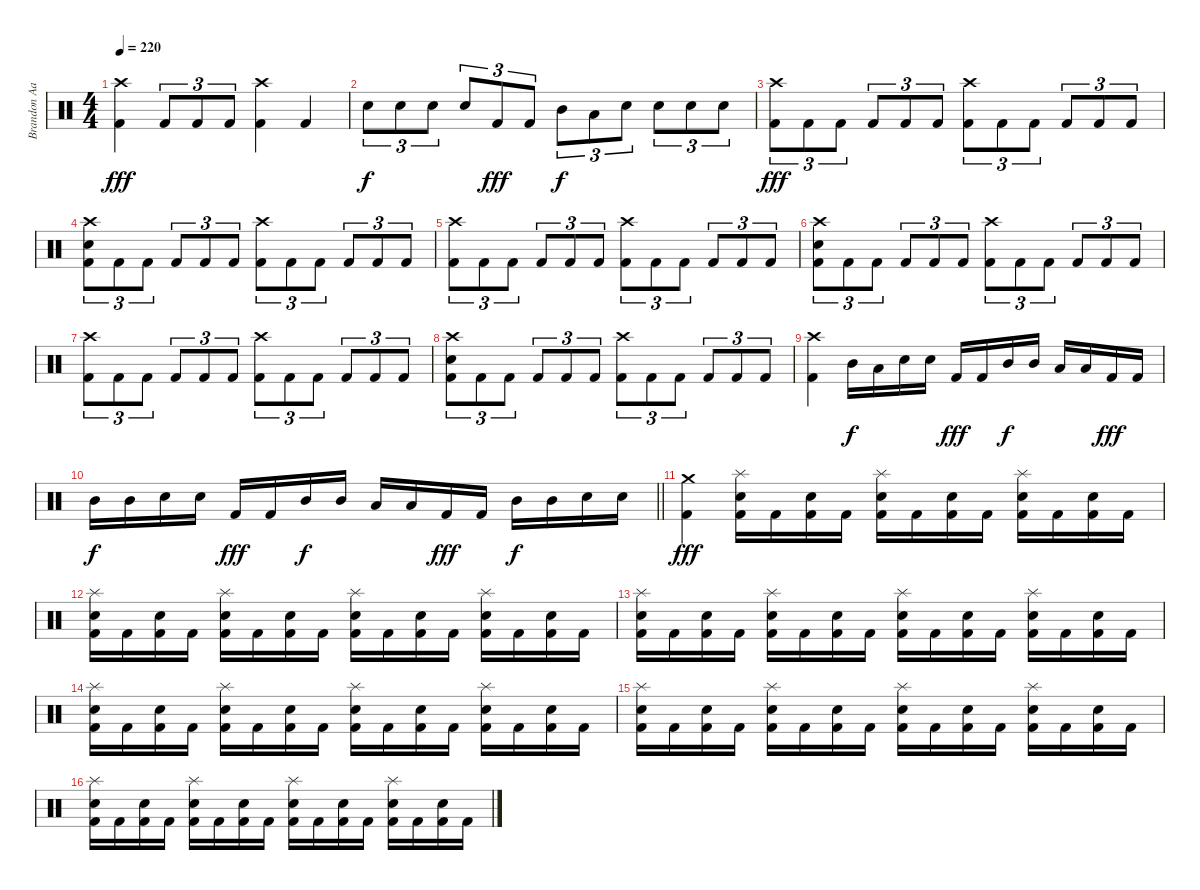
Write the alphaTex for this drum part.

\track ("Brandon Aaron Burkhalter" "Brandon Aa") {instrument percussion}
\staff {score}
\articulation defaults
\ts (4 4)
\tempo 220
\clef neutral
\ks c
("Crash high (hit)" "Kick (hit) 2").4{dy fff} "Kick (hit) 2".8{tu (3 2)} "Kick (hit) 2".8{tu (3 2)} "Kick (hit) 2".8{tu (3 2)} ("Crash high (hit)" "Kick (hit) 2").4 "Kick (hit) 2".4 |
"Snare (hit) 2".8{tu (3 2) dy f} "Snare (hit) 2".8{tu (3 2)} "Snare (hit) 2".8{tu (3 2)} "Snare (hit) 2".8{tu (3 2)} "Kick (hit) 2".8{tu (3 2) dy fff} "Kick (hit) 2".8{tu (3 2)} "Mid Tom (hit)".8{tu (3 2) dy f} "Low Tom (hit)".8{tu (3 2)} "Snare (hit) 2".8{tu (3 2)} "Snare (hit) 2".8{tu (3 2)} "Snare (hit) 2".8{tu (3 2)} "Snare (hit) 2".8{tu (3 2)} |
("Crash high (hit)" "Kick (hit) 2").8{tu (3 2) dy fff} "Kick (hit) 2".8{tu (3 2)} "Kick (hit) 2".8{tu (3 2)} "Kick (hit) 2".8{tu (3 2)} "Kick (hit) 2".8{tu (3 2)} "Kick (hit) 2".8{tu (3 2)} ("Crash high (hit)" "Kick (hit) 2").8{tu (3 2)} "Kick (hit) 2".8{tu (3 2)} "Kick (hit) 2".8{tu (3 2)} "Kick (hit) 2".8{tu (3 2)} "Kick (hit) 2".8{tu (3 2)} "Kick (hit) 2".8{tu (3 2)} |
("Crash high (hit)" "Snare (hit) 2" "Kick (hit) 2").8{tu (3 2)} "Kick (hit) 2".8{tu (3 2)} "Kick (hit) 2".8{tu (3 2)} "Kick (hit) 2".8{tu (3 2)} "Kick (hit) 2".8{tu (3 2)} "Kick (hit) 2".8{tu (3 2)} ("Crash high (hit)" "Kick (hit) 2").8{tu (3 2)} "Kick (hit) 2".8{tu (3 2)} "Kick (hit) 2".8{tu (3 2)} "Kick (hit) 2".8{tu (3 2)} "Kick (hit) 2".8{tu (3 2)} "Kick (hit) 2".8{tu (3 2)} |
("Crash high (hit)" "Kick (hit) 2").8{tu (3 2)} "Kick (hit) 2".8{tu (3 2)} "Kick (hit) 2".8{tu (3 2)} "Kick (hit) 2".8{tu (3 2)} "Kick (hit) 2".8{tu (3 2)} "Kick (hit) 2".8{tu (3 2)} ("Crash high (hit)" "Kick (hit) 2").8{tu (3 2)} "Kick (hit) 2".8{tu (3 2)} "Kick (hit) 2".8{tu (3 2)} "Kick (hit) 2".8{tu (3 2)} "Kick (hit) 2".8{tu (3 2)} "Kick (hit) 2".8{tu (3 2)} |
("Crash high (hit)" "Snare (hit) 2" "Kick (hit) 2").8{tu (3 2)} "Kick (hit) 2".8{tu (3 2)} "Kick (hit) 2".8{tu (3 2)} "Kick (hit) 2".8{tu (3 2)} "Kick (hit) 2".8{tu (3 2)} "Kick (hit) 2".8{tu (3 2)} ("Crash high (hit)" "Kick (hit) 2").8{tu (3 2)} "Kick (hit) 2".8{tu (3 2)} "Kick (hit) 2".8{tu (3 2)} "Kick (hit) 2".8{tu (3 2)} "Kick (hit) 2".8{tu (3 2)} "Kick (hit) 2".8{tu (3 2)} |
("Crash high (hit)" "Kick (hit) 2").8{tu (3 2)} "Kick (hit) 2".8{tu (3 2)} "Kick (hit) 2".8{tu (3 2)} "Kick (hit) 2".8{tu (3 2)} "Kick (hit) 2".8{tu (3 2)} "Kick (hit) 2".8{tu (3 2)} ("Crash high (hit)" "Kick (hit) 2").8{tu (3 2)} "Kick (hit) 2".8{tu (3 2)} "Kick (hit) 2".8{tu (3 2)} "Kick (hit) 2".8{tu (3 2)} "Kick (hit) 2".8{tu (3 2)} "Kick (hit) 2".8{tu (3 2)} |
("Crash high (hit)" "Snare (hit) 2" "Kick (hit) 2").8{tu (3 2)} "Kick (hit) 2".8{tu (3 2)} "Kick (hit) 2".8{tu (3 2)} "Kick (hit) 2".8{tu (3 2)} "Kick (hit) 2".8{tu (3 2)} "Kick (hit) 2".8{tu (3 2)} ("Crash high (hit)" "Kick (hit) 2").8{tu (3 2)} "Kick (hit) 2".8{tu (3 2)} "Kick (hit) 2".8{tu (3 2)} "Kick (hit) 2".8{tu (3 2)} "Kick (hit) 2".8{tu (3 2)} "Kick (hit) 2".8{tu (3 2)} |
("Crash high (hit)" "Kick (hit) 2").4 "Mid Tom (hit)".16{dy f} "Low Tom (hit)".16 "Snare (hit) 2".16 "Snare (hit) 2".16 "Kick (hit) 2".16{dy fff} "Kick (hit) 2".16 "Mid Tom (hit)".16{dy f} "Mid Tom (hit)".16 "Low Tom (hit)".16 "Low Tom (hit)".16 "Kick (hit) 2".16{dy fff} "Kick (hit) 2".16 |
\barLineRight lightlight "Mid Tom (hit)".16{dy f} "Mid Tom (hit)".16 "Snare (hit) 2".16 "Snare (hit) 2".16 "Kick (hit) 2".16{dy fff} "Kick (hit) 2".16 "Mid Tom (hit)".16{dy f} "Mid Tom (hit)".16 "Low Tom (hit)".16 "Low Tom (hit)".16 "Kick (hit) 2".16{dy fff} "Kick (hit) 2".16 "Mid Tom (hit)".16{dy f} "Mid Tom (hit)".16 "Snare (hit) 2".16 "Snare (hit) 2".16
|
("Crash medium (hit)" "Kick (hit) 2").4{dy fff} ("Splash (hit)" "Snare (hit) 2" "Kick (hit) 2").16 "Kick (hit) 2".16 ("Snare (hit) 2" "Kick (hit) 2").16 "Kick (hit) 2".16 ("Splash (hit)" "Snare (hit) 2" "Kick (hit) 2").16 "Kick (hit) 2".16 ("Snare (hit) 2" "Kick (hit) 2").16 "Kick (hit) 2".16 ("Splash (hit)" "Snare (hit) 2" "Kick (hit) 2").16 "Kick (hit) 2".16 ("Snare (hit) 2" "Kick (hit) 2").16 "Kick (hit) 2".16 |
("Splash (hit)" "Snare (hit) 2" "Kick (hit) 2").16 "Kick (hit) 2".16 ("Snare (hit) 2" "Kick (hit) 2").16 "Kick (hit) 2".16 ("Splash (hit)" "Snare (hit) 2" "Kick (hit) 2").16 "Kick (hit) 2".16 ("Snare (hit) 2" "Kick (hit) 2").16 "Kick (hit) 2".16 ("Splash (hit)" "Snare (hit) 2" "Kick (hit) 2").16 "Kick (hit) 2".16 ("Snare (hit) 2" "Kick (hit) 2").16 "Kick (hit) 2".16 ("Splash (hit)" "Snare (hit) 2" "Kick (hit) 2").16 "Kick (hit) 2".16 ("Snare (hit) 2" "Kick (hit) 2").16 "Kick (hit) 2".16 |
("Splash (hit)" "Snare (hit) 2" "Kick (hit) 2").16 "Kick (hit) 2".16 ("Snare (hit) 2" "Kick (hit) 2").16 "Kick (hit) 2".16 ("Splash (hit)" "Snare (hit) 2" "Kick (hit) 2").16 "Kick (hit) 2".16 ("Snare (hit) 2" "Kick (hit) 2").16 "Kick (hit) 2".16 ("Splash (hit)" "Snare (hit) 2" "Kick (hit) 2").16 "Kick (hit) 2".16 ("Snare (hit) 2" "Kick (hit) 2").16 "Kick (hit) 2".16 ("Splash (hit)" "Snare (hit) 2" "Kick (hit) 2").16 "Kick (hit) 2".16 ("Snare (hit) 2" "Kick (hit) 2").16 "Kick (hit) 2".16 |
("Splash (hit)" "Snare (hit) 2" "Kick (hit) 2").16 "Kick (hit) 2".16 ("Snare (hit) 2" "Kick (hit) 2").16 "Kick (hit) 2".16 ("Splash (hit)" "Snare (hit) 2" "Kick (hit) 2").16 "Kick (hit) 2".16 ("Snare (hit) 2" "Kick (hit) 2").16 "Kick (hit) 2".16 ("Splash (hit)" "Snare (hit) 2" "Kick (hit) 2").16 "Kick (hit) 2".16 ("Snare (hit) 2" "Kick (hit) 2").16 "Kick (hit) 2".16 ("Splash (hit)" "Snare (hit) 2" "Kick (hit) 2").16 "Kick (hit) 2".16 ("Snare (hit) 2" "Kick (hit) 2").16 "Kick (hit) 2".16 |
("Splash (hit)" "Snare (hit) 2" "Kick (hit) 2").16 "Kick (hit) 2".16 ("Snare (hit) 2" "Kick (hit) 2").16 "Kick (hit) 2".16 ("Splash (hit)" "Snare (hit) 2" "Kick (hit) 2").16 "Kick (hit) 2".16 ("Snare (hit) 2" "Kick (hit) 2").16 "Kick (hit) 2".16 ("Splash (hit)" "Snare (hit) 2" "Kick (hit) 2").16 "Kick (hit) 2".16 ("Snare (hit) 2" "Kick (hit) 2").16 "Kick (hit) 2".16 ("Splash (hit)" "Snare (hit) 2" "Kick (hit) 2").16 "Kick (hit) 2".16 ("Snare (hit) 2" "Kick (hit) 2").16 "Kick (hit) 2".16 |
("Splash (hit)" "Snare (hit) 2" "Kick (hit) 2").16 "Kick (hit) 2".16 ("Snare (hit) 2" "Kick (hit) 2").16 "Kick (hit) 2".16 ("Splash (hit)" "Snare (hit) 2" "Kick (hit) 2").16 "Kick (hit) 2".16 ("Snare (hit) 2" "Kick (hit) 2").16 "Kick (hit) 2".16 ("Splash (hit)" "Snare (hit) 2" "Kick (hit) 2").16 "Kick (hit) 2".16 ("Snare (hit) 2" "Kick (hit) 2").16 "Kick (hit) 2".16 ("Splash (hit)" "Snare (hit) 2" "Kick (hit) 2").16 "Kick (hit) 2".16 ("Snare (hit) 2" "Kick (hit) 2").16 "Kick (hit) 2".16
